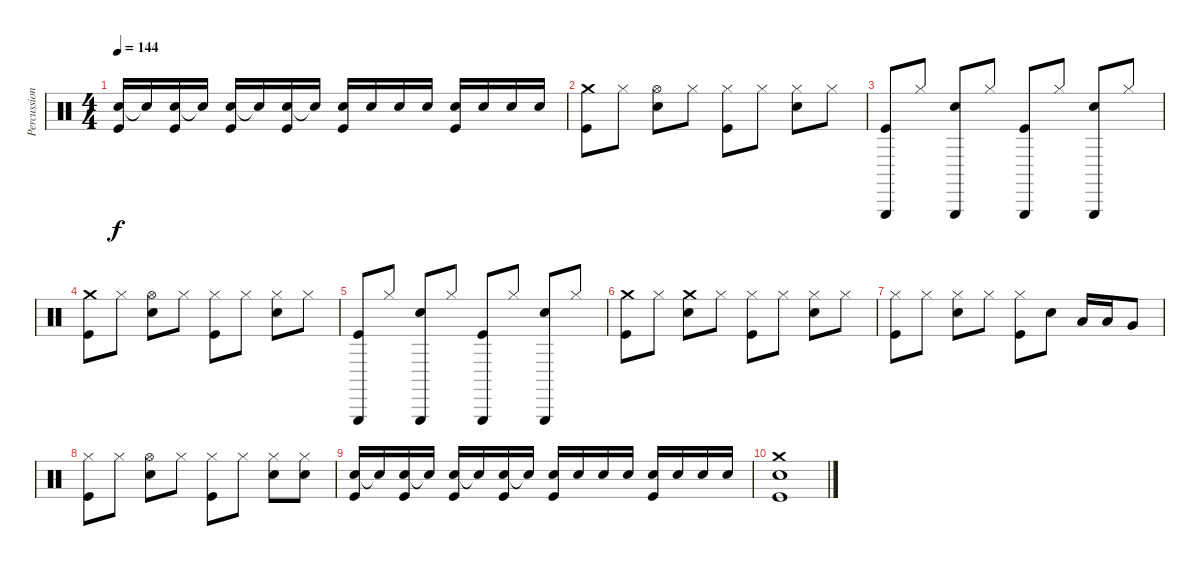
\track ("Percussion" "Percussion") {instrument percussion}
\staff {score}
\articulation defaults
\ts (4 4)
\tempo 144
\clef neutral
\ks c
("Snare (hit) 2" "Kick (hit)").16{dy f} "Snare (hit) 2"{t}.16 ("Snare (hit) 2" "Kick (hit)").16 "Snare (hit) 2"{t}.16 ("Snare (hit) 2" "Kick (hit)").16 "Snare (hit) 2"{t}.16 ("Snare (hit) 2" "Kick (hit)").16 "Snare (hit) 2"{t}.16 ("Snare (hit) 2" "Kick (hit)").16 "Snare (hit) 2".16 "Snare (hit) 2".16 "Snare (hit) 2".16 ("Snare (hit) 2" "Kick (hit)").16 "Snare (hit) 2".16 "Snare (hit) 2".16 "Snare (hit) 2".16 |
("Crash medium (hit)" "Kick (hit)").8 "Hi-Hat (closed)".8 ("Hi-Hat (open)" "Snare (hit) 2").8 "Hi-Hat (closed)".8 ("Hi-Hat (closed)" "Kick (hit)").8 "Hi-Hat (closed)".8 ("Hi-Hat (closed)" "Snare (hit) 2").8 "Hi-Hat (closed)".8 |
("Triangle (hit)" "Kick (hit)").8 "Hi-Hat (closed)".8 ("Triangle (hit)" "Snare (hit) 2").8 "Hi-Hat (closed)".8 ("Triangle (hit)" "Kick (hit)").8 "Hi-Hat (closed)".8 ("Triangle (hit)" "Snare (hit) 2").8 "Hi-Hat (closed)".8 |
("Crash medium (hit)" "Kick (hit)").8 "Hi-Hat (closed)".8 ("Hi-Hat (open)" "Snare (hit) 2").8 "Hi-Hat (closed)".8 ("Hi-Hat (closed)" "Kick (hit)").8 "Hi-Hat (closed)".8 ("Hi-Hat (closed)" "Snare (hit) 2").8 "Hi-Hat (closed)".8 |
("Triangle (hit)" "Kick (hit)").8 "Hi-Hat (closed)".8 ("Triangle (hit)" "Snare (hit) 2").8 "Hi-Hat (closed)".8 ("Triangle (hit)" "Kick (hit)").8 "Hi-Hat (closed)".8 ("Triangle (hit)" "Snare (hit) 2").8 "Hi-Hat (closed)".8 |
("Crash medium (hit)" "Kick (hit)").8 "Hi-Hat (closed)".8 ("Crash medium (hit)" "Snare (hit) 2").8 "Hi-Hat (closed)".8 ("Hi-Hat (closed)" "Kick (hit)").8 "Hi-Hat (closed)".8 ("Hi-Hat (closed)" "Snare (hit) 2").8 "Hi-Hat (closed)".8 |
("Hi-Hat (closed)" "Kick (hit)").8 "Hi-Hat (closed)".8 ("Hi-Hat (closed)" "Snare (hit) 2").8 "Hi-Hat (closed)".8 ("Hi-Hat (closed)" "Kick (hit)").8 "Snare (hit) 2".8 "Low Floor Tom (hit)".16 "Low Floor Tom (hit)".16 "Very Low Tom (hit)".8 |
("Hi-Hat (closed)" "Kick (hit)").8 "Hi-Hat (closed)".8 ("Hi-Hat (open)" "Snare (hit) 2").8 "Hi-Hat (closed)".8 ("Hi-Hat (closed)" "Kick (hit)").8 "Hi-Hat (closed)".8 ("Hi-Hat (closed)" "Snare (hit) 2").8 ("Hi-Hat (closed)" "Snare (hit) 2").8 |
("Snare (hit) 2" "Kick (hit)").16 "Snare (hit) 2"{t}.16 ("Snare (hit) 2" "Kick (hit)").16 "Snare (hit) 2"{t}.16 ("Snare (hit) 2" "Kick (hit)").16 "Snare (hit) 2"{t}.16 ("Snare (hit) 2" "Kick (hit)").16 "Snare (hit) 2"{t}.16 ("Snare (hit) 2" "Kick (hit)").16 "Snare (hit) 2".16 "Snare (hit) 2".16 "Snare (hit) 2".16 ("Snare (hit) 2" "Kick (hit)").16 "Snare (hit) 2".16 "Snare (hit) 2".16 "Snare (hit) 2".16 |
("Crash medium (hit)" "Snare (hit) 2" "Kick (hit)").1
